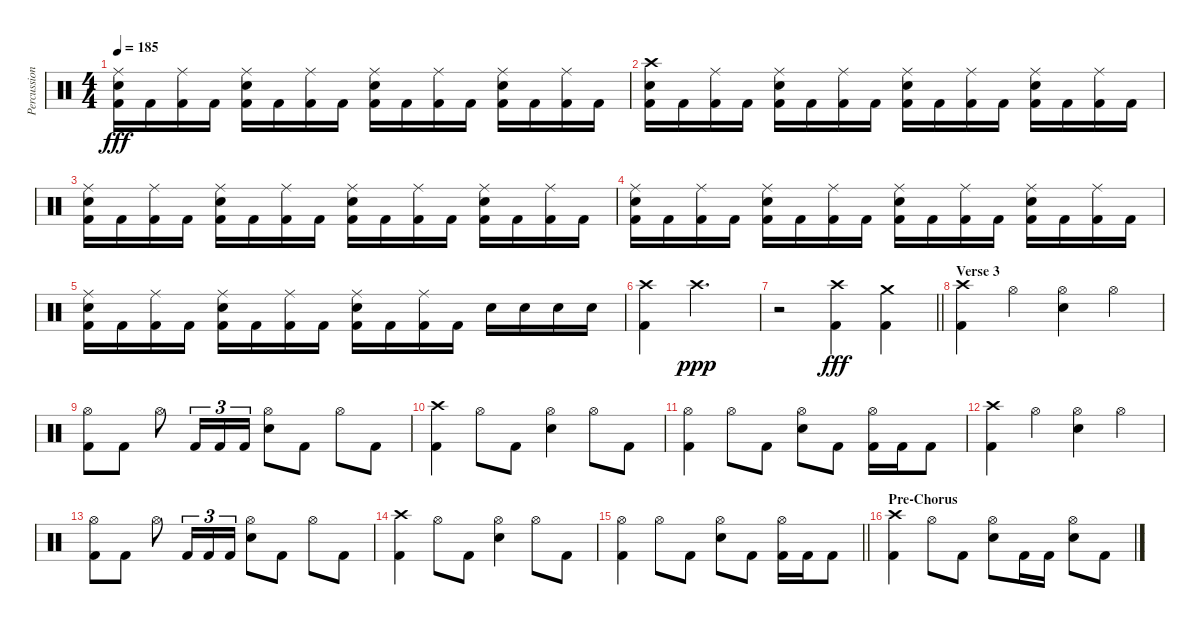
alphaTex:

\track ("Percussion" "Percussion") {instrument percussion}
\staff {score}
\articulation defaults
\ts (4 4)
\tempo 185
\clef neutral
\ks c
("Ride (middle)" "Electric Snare (hit)" "Kick (hit) 2").16{dy fff} "Kick (hit) 2".16 ("Ride (middle)" "Kick (hit) 2").16 "Kick (hit) 2".16 ("Ride (middle)" "Electric Snare (hit)" "Kick (hit) 2").16 "Kick (hit) 2".16 ("Ride (middle)" "Kick (hit) 2").16 "Kick (hit) 2".16 ("Ride (middle)" "Electric Snare (hit)" "Kick (hit) 2").16 "Kick (hit) 2".16 ("Ride (middle)" "Kick (hit) 2").16 "Kick (hit) 2".16 ("Ride (middle)" "Electric Snare (hit)" "Kick (hit) 2").16 "Kick (hit) 2".16 ("Ride (middle)" "Kick (hit) 2").16 "Kick (hit) 2".16 |
("Crash high (hit)" "Electric Snare (hit)" "Kick (hit) 2").16 "Kick (hit) 2".16 ("Ride (middle)" "Kick (hit) 2").16 "Kick (hit) 2".16 ("Ride (middle)" "Electric Snare (hit)" "Kick (hit) 2").16 "Kick (hit) 2".16 ("Ride (middle)" "Kick (hit) 2").16 "Kick (hit) 2".16 ("Ride (middle)" "Electric Snare (hit)" "Kick (hit) 2").16 "Kick (hit) 2".16 ("Ride (middle)" "Kick (hit) 2").16 "Kick (hit) 2".16 ("Ride (middle)" "Electric Snare (hit)" "Kick (hit) 2").16 "Kick (hit) 2".16 ("Ride (middle)" "Kick (hit) 2").16 "Kick (hit) 2".16 |
("Ride (middle)" "Electric Snare (hit)" "Kick (hit) 2").16 "Kick (hit) 2".16 ("Ride (middle)" "Kick (hit) 2").16 "Kick (hit) 2".16 ("Ride (middle)" "Electric Snare (hit)" "Kick (hit) 2").16 "Kick (hit) 2".16 ("Ride (middle)" "Kick (hit) 2").16 "Kick (hit) 2".16 ("Ride (middle)" "Electric Snare (hit)" "Kick (hit) 2").16 "Kick (hit) 2".16 ("Ride (middle)" "Kick (hit) 2").16 "Kick (hit) 2".16 ("Ride (middle)" "Electric Snare (hit)" "Kick (hit) 2").16 "Kick (hit) 2".16 ("Ride (middle)" "Kick (hit) 2").16 "Kick (hit) 2".16 |
("Ride (middle)" "Electric Snare (hit)" "Kick (hit) 2").16 "Kick (hit) 2".16 ("Ride (middle)" "Kick (hit) 2").16 "Kick (hit) 2".16 ("Ride (middle)" "Electric Snare (hit)" "Kick (hit) 2").16 "Kick (hit) 2".16 ("Ride (middle)" "Kick (hit) 2").16 "Kick (hit) 2".16 ("Ride (middle)" "Electric Snare (hit)" "Kick (hit) 2").16 "Kick (hit) 2".16 ("Ride (middle)" "Kick (hit) 2").16 "Kick (hit) 2".16 ("Ride (middle)" "Electric Snare (hit)" "Kick (hit) 2").16 "Kick (hit) 2".16 ("Ride (middle)" "Kick (hit) 2").16 "Kick (hit) 2".16 |
("Ride (middle)" "Electric Snare (hit)" "Kick (hit) 2").16 "Kick (hit) 2".16 ("Ride (middle)" "Kick (hit) 2").16 "Kick (hit) 2".16 ("Ride (middle)" "Electric Snare (hit)" "Kick (hit) 2").16 "Kick (hit) 2".16 ("Ride (middle)" "Kick (hit) 2").16 "Kick (hit) 2".16 ("Ride (middle)" "Electric Snare (hit)" "Kick (hit) 2").16 "Kick (hit) 2".16 ("Ride (middle)" "Kick (hit) 2").16 "Kick (hit) 2".16 "Electric Snare (hit)".16 "Electric Snare (hit)".16 "Electric Snare (hit)".16 "Electric Snare (hit)".16 |
("Crash high (hit)" "Kick (hit) 2").4 "Crash high (hit)".2{d dy ppp} |
\barLineRight lightlight
r.2 ("Crash high (hit)" "Kick (hit) 2").4{dy fff} ("Crash medium (hit)" "Kick (hit) 2").4 |
\section ("" "Verse 3")
("Crash high (hit)" "Kick (hit) 2").4 "Hi-Hat (open)".4 ("Hi-Hat (open)" "Electric Snare (hit)").4 "Hi-Hat (open)".4 |
("Hi-Hat (open)" "Kick (hit) 2").8 "Kick (hit) 2".8 "Hi-Hat (open)".8 "Kick (hit) 2".16{tu (3 2)} "Kick (hit) 2".16{tu (3 2)} "Kick (hit) 2".16{tu (3 2)} ("Hi-Hat (open)" "Electric Snare (hit)").8 "Kick (hit) 2".8 "Hi-Hat (open)".8 "Kick (hit) 2".8 |
("Crash high (hit)" "Kick (hit) 2").4 "Hi-Hat (open)".8 "Kick (hit) 2".8 ("Hi-Hat (open)" "Electric Snare (hit)").4 "Hi-Hat (open)".8 "Kick (hit) 2".8 |
("Hi-Hat (open)" "Kick (hit) 2").4 "Hi-Hat (open)".8 "Kick (hit) 2".8 ("Hi-Hat (open)" "Electric Snare (hit)").8 "Kick (hit) 2".8 ("Hi-Hat (open)" "Kick (hit) 2").16 "Kick (hit) 2".16 "Kick (hit) 2".8 |
("Crash high (hit)" "Kick (hit) 2").4 "Hi-Hat (open)".4 ("Hi-Hat (open)" "Electric Snare (hit)").4 "Hi-Hat (open)".4 |
("Hi-Hat (open)" "Kick (hit) 2").8 "Kick (hit) 2".8 "Hi-Hat (open)".8 "Kick (hit) 2".16{tu (3 2)} "Kick (hit) 2".16{tu (3 2)} "Kick (hit) 2".16{tu (3 2)} ("Hi-Hat (open)" "Electric Snare (hit)").8 "Kick (hit) 2".8 "Hi-Hat (open)".8 "Kick (hit) 2".8 |
("Crash high (hit)" "Kick (hit) 2").4 "Hi-Hat (open)".8 "Kick (hit) 2".8 ("Hi-Hat (open)" "Electric Snare (hit)").4 "Hi-Hat (open)".8 "Kick (hit) 2".8 |
\barLineRight lightlight
("Hi-Hat (open)" "Kick (hit) 2").4 "Hi-Hat (open)".8 "Kick (hit) 2".8 ("Hi-Hat (open)" "Electric Snare (hit)").8 "Kick (hit) 2".8 ("Hi-Hat (open)" "Kick (hit) 2").16 "Kick (hit) 2".16 "Kick (hit) 2".8 |
\section ("" "Pre-Chorus")
("Crash high (hit)" "Kick (hit) 2").4 "Hi-Hat (open)".8 "Kick (hit) 2".8 ("Hi-Hat (open)" "Electric Snare (hit)").8 "Kick (hit) 2".16 "Kick (hit) 2".16 ("Hi-Hat (open)" "Electric Snare (hit)").8 "Kick (hit) 2".8
